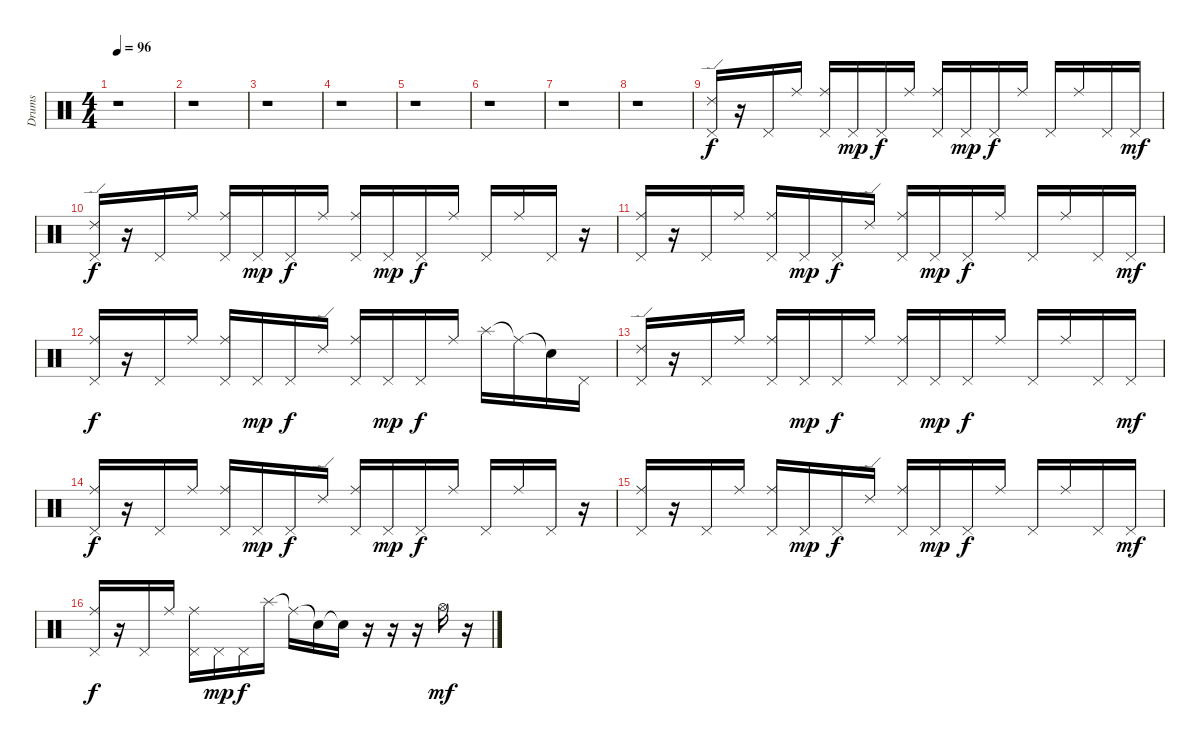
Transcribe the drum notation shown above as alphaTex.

\track ("Drums" "Drums") {instrument percussion}
\staff {score}
\articulation defaults
\ts (4 4)
\tempo 96
\clef neutral
\ks c
r.1{dy f} |
r.1 |
r.1 |
r.1 |
r.1 |
r.1 |
r.1 |
r.1 |
("Ride (edge) 2" "Pedal Hi-Hat (hit)").16 r.16 "Pedal Hi-Hat (hit)".16 "Ride (middle)".16 ("Ride (middle)" "Pedal Hi-Hat (hit)").16 "Pedal Hi-Hat (hit)".16{dy mp} "Pedal Hi-Hat (hit)".16{dy f} "Ride (middle)".16 ("Ride (middle)" "Pedal Hi-Hat (hit)").16 "Pedal Hi-Hat (hit)".16{dy mp} "Pedal Hi-Hat (hit)".16{dy f} "Ride (middle)".16 "Pedal Hi-Hat (hit)".16 "Ride (middle)".16 "Pedal Hi-Hat (hit)".16 "Pedal Hi-Hat (hit)".16{dy mf} |
("Ride (edge) 2" "Pedal Hi-Hat (hit)").16{dy f} r.16 "Pedal Hi-Hat (hit)".16 "Ride (middle)".16 ("Ride (middle)" "Pedal Hi-Hat (hit)").16 "Pedal Hi-Hat (hit)".16{dy mp} "Pedal Hi-Hat (hit)".16{dy f} "Ride (middle)".16 ("Ride (middle)" "Pedal Hi-Hat (hit)").16 "Pedal Hi-Hat (hit)".16{dy mp} "Pedal Hi-Hat (hit)".16{dy f} "Ride (middle)".16 "Pedal Hi-Hat (hit)".16 "Ride (middle)".16 "Pedal Hi-Hat (hit)".16 r.16 |
("Ride (middle)" "Pedal Hi-Hat (hit)").16 r.16 "Pedal Hi-Hat (hit)".16 "Ride (middle)".16 ("Ride (middle)" "Pedal Hi-Hat (hit)").16 "Pedal Hi-Hat (hit)".16{dy mp} "Pedal Hi-Hat (hit)".16{dy f} "Ride (edge) 2".16 ("Ride (middle)" "Pedal Hi-Hat (hit)").16 "Pedal Hi-Hat (hit)".16{dy mp} "Pedal Hi-Hat (hit)".16{dy f} "Ride (middle)".16 "Pedal Hi-Hat (hit)".16 "Ride (middle)".16 "Pedal Hi-Hat (hit)".16 "Pedal Hi-Hat (hit)".16{dy mf} |
("Ride (middle)" "Pedal Hi-Hat (hit)").16{dy f} r.16 "Pedal Hi-Hat (hit)".16 "Ride (middle)".16 ("Ride (middle)" "Pedal Hi-Hat (hit)").16 "Pedal Hi-Hat (hit)".16{dy mp} "Pedal Hi-Hat (hit)".16{dy f} "Ride (edge) 2".16 ("Ride (middle)" "Pedal Hi-Hat (hit)").16 "Pedal Hi-Hat (hit)".16{dy mp} "Pedal Hi-Hat (hit)".16{dy f} "Ride (middle)".16 "Splash (hit)".16 "Ride (middle)"{t}.16 "Snare (hit)"{t}.16 "Pedal Hi-Hat (hit)".16 |
("Ride (edge) 2" "Pedal Hi-Hat (hit)").16 r.16 "Pedal Hi-Hat (hit)".16 "Ride (middle)".16 ("Ride (middle)" "Pedal Hi-Hat (hit)").16 "Pedal Hi-Hat (hit)".16{dy mp} "Pedal Hi-Hat (hit)".16{dy f} "Ride (middle)".16 ("Ride (middle)" "Pedal Hi-Hat (hit)").16 "Pedal Hi-Hat (hit)".16{dy mp} "Pedal Hi-Hat (hit)".16{dy f} "Ride (middle)".16 "Pedal Hi-Hat (hit)".16 "Ride (middle)".16 "Pedal Hi-Hat (hit)".16 "Pedal Hi-Hat (hit)".16{dy mf} |
("Ride (middle)" "Pedal Hi-Hat (hit)").16{dy f} r.16 "Pedal Hi-Hat (hit)".16 "Ride (middle)".16 ("Ride (middle)" "Pedal Hi-Hat (hit)").16 "Pedal Hi-Hat (hit)".16{dy mp} "Pedal Hi-Hat (hit)".16{dy f} "Ride (edge) 2".16 ("Ride (middle)" "Pedal Hi-Hat (hit)").16 "Pedal Hi-Hat (hit)".16{dy mp} "Pedal Hi-Hat (hit)".16{dy f} "Ride (middle)".16 "Pedal Hi-Hat (hit)".16 "Ride (middle)".16 "Pedal Hi-Hat (hit)".16 r.16 |
("Ride (middle)" "Pedal Hi-Hat (hit)").16 r.16 "Pedal Hi-Hat (hit)".16 "Ride (middle)".16 ("Ride (middle)" "Pedal Hi-Hat (hit)").16 "Pedal Hi-Hat (hit)".16{dy mp} "Pedal Hi-Hat (hit)".16{dy f} "Ride (edge) 2".16 ("Ride (middle)" "Pedal Hi-Hat (hit)").16 "Pedal Hi-Hat (hit)".16{dy mp} "Pedal Hi-Hat (hit)".16{dy f} "Ride (middle)".16 "Pedal Hi-Hat (hit)".16 "Ride (middle)".16 "Pedal Hi-Hat (hit)".16 "Pedal Hi-Hat (hit)".16{dy mf} |
("Ride (middle)" "Pedal Hi-Hat (hit)").16{dy f} r.16 "Pedal Hi-Hat (hit)".16 "Ride (middle)".16 ("Ride (middle)" "Pedal Hi-Hat (hit)").16 "Pedal Hi-Hat (hit)".16{dy mp} "Pedal Hi-Hat (hit)".16{dy f} "Splash (hit)".16 "Ride (middle)"{t}.16 "Snare (hit)"{t}.16 "Snare (hit)"{t}.16 r.16 r.16 r.16 "Hi-Hat (open)".16{dy mf} r.16
